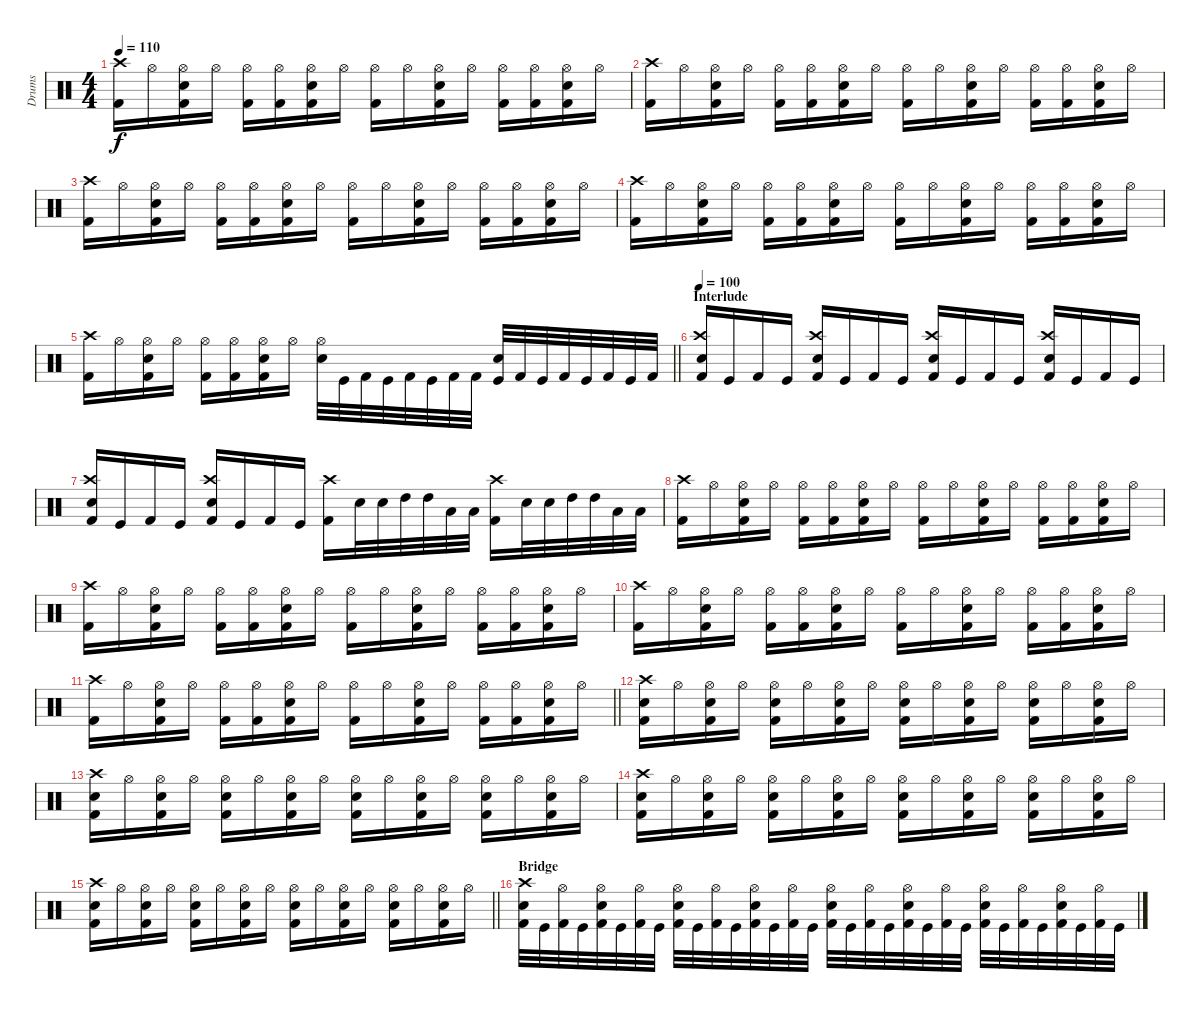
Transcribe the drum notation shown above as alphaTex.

\track ("Drums" "Drums") {instrument percussion}
\staff {score}
\articulation defaults
\ts (4 4)
\tempo 110
\clef neutral
\ks c
("Kick (hit) 2" "Crash high (hit)").16{dy f} "Hi-Hat (open)".16 ("Kick (hit) 2" "Snare (hit) 2" "Hi-Hat (open)").16 "Hi-Hat (open)".16 ("Kick (hit) 2" "Hi-Hat (open)").16 ("Kick (hit) 2" "Hi-Hat (open)").16 ("Kick (hit) 2" "Snare (hit) 2" "Hi-Hat (open)").16 "Hi-Hat (open)".16 ("Kick (hit) 2" "Hi-Hat (open)").16 "Hi-Hat (open)".16 ("Kick (hit) 2" "Snare (hit) 2" "Hi-Hat (open)").16 "Hi-Hat (open)".16 ("Kick (hit) 2" "Hi-Hat (open)").16 ("Kick (hit) 2" "Hi-Hat (open)").16 ("Kick (hit) 2" "Snare (hit) 2" "Hi-Hat (open)").16 "Hi-Hat (open)".16 |
("Kick (hit) 2" "Crash high (hit)").16 "Hi-Hat (open)".16 ("Kick (hit) 2" "Snare (hit) 2" "Hi-Hat (open)").16 "Hi-Hat (open)".16 ("Kick (hit) 2" "Hi-Hat (open)").16 ("Kick (hit) 2" "Hi-Hat (open)").16 ("Kick (hit) 2" "Snare (hit) 2" "Hi-Hat (open)").16 "Hi-Hat (open)".16 ("Kick (hit) 2" "Hi-Hat (open)").16 "Hi-Hat (open)".16 ("Kick (hit) 2" "Snare (hit) 2" "Hi-Hat (open)").16 "Hi-Hat (open)".16 ("Kick (hit) 2" "Hi-Hat (open)").16 ("Kick (hit) 2" "Hi-Hat (open)").16 ("Kick (hit) 2" "Snare (hit) 2" "Hi-Hat (open)").16 "Hi-Hat (open)".16 |
("Kick (hit) 2" "Crash high (hit)").16 "Hi-Hat (open)".16 ("Kick (hit) 2" "Snare (hit) 2" "Hi-Hat (open)").16 "Hi-Hat (open)".16 ("Kick (hit) 2" "Hi-Hat (open)").16 ("Kick (hit) 2" "Hi-Hat (open)").16 ("Kick (hit) 2" "Snare (hit) 2" "Hi-Hat (open)").16 "Hi-Hat (open)".16 ("Kick (hit) 2" "Hi-Hat (open)").16 "Hi-Hat (open)".16 ("Kick (hit) 2" "Snare (hit) 2" "Hi-Hat (open)").16 "Hi-Hat (open)".16 ("Kick (hit) 2" "Hi-Hat (open)").16 ("Kick (hit) 2" "Hi-Hat (open)").16 ("Kick (hit) 2" "Snare (hit) 2" "Hi-Hat (open)").16 "Hi-Hat (open)".16 |
("Kick (hit) 2" "Crash high (hit)").16 "Hi-Hat (open)".16 ("Kick (hit) 2" "Snare (hit) 2" "Hi-Hat (open)").16 "Hi-Hat (open)".16 ("Kick (hit) 2" "Hi-Hat (open)").16 ("Kick (hit) 2" "Hi-Hat (open)").16 ("Kick (hit) 2" "Snare (hit) 2" "Hi-Hat (open)").16 "Hi-Hat (open)".16 ("Kick (hit) 2" "Hi-Hat (open)").16 "Hi-Hat (open)".16 ("Kick (hit) 2" "Snare (hit) 2" "Hi-Hat (open)").16 "Hi-Hat (open)".16 ("Kick (hit) 2" "Hi-Hat (open)").16 ("Kick (hit) 2" "Hi-Hat (open)").16 ("Kick (hit) 2" "Snare (hit) 2" "Hi-Hat (open)").16 "Hi-Hat (open)".16 |
\barLineRight lightlight
("Kick (hit) 2" "Crash high (hit)").16 "Hi-Hat (open)".16 ("Kick (hit) 2" "Snare (hit) 2" "Hi-Hat (open)").16 "Hi-Hat (open)".16 ("Kick (hit) 2" "Hi-Hat (open)").16 ("Kick (hit) 2" "Hi-Hat (open)").16 ("Kick (hit) 2" "Snare (hit) 2" "Hi-Hat (open)").16 "Hi-Hat (open)".16 ("Snare (hit) 2" "Hi-Hat (open)").32 "Kick (hit)".32 "Kick (hit) 2".32 "Kick (hit)".32 "Kick (hit) 2".32 "Kick (hit)".32 "Kick (hit) 2".32 "Kick (hit) 2".32 ("Kick (hit)" "Snare (hit) 2").32 "Kick (hit) 2".32 "Kick (hit)".32 "Kick (hit) 2".32 "Kick (hit)".32 "Kick (hit) 2".32 "Kick (hit)".32 "Kick (hit) 2".32 |
\section ("" "Interlude")
\tempo 100
("Kick (hit) 2" "Snare (hit) 2" "Crash high (hit)").16 "Kick (hit)".16 "Kick (hit) 2".16 "Kick (hit)".16 ("Kick (hit) 2" "Snare (hit) 2" "Crash high (hit)").16 "Kick (hit)".16 "Kick (hit) 2".16 "Kick (hit)".16 ("Kick (hit) 2" "Snare (hit) 2" "Crash high (hit)").16 "Kick (hit)".16 "Kick (hit) 2".16 "Kick (hit)".16 ("Kick (hit) 2" "Snare (hit) 2" "Crash high (hit)").16 "Kick (hit)".16 "Kick (hit) 2".16 "Kick (hit)".16 |
("Kick (hit) 2" "Snare (hit) 2" "Crash high (hit)").16 "Kick (hit)".16 "Kick (hit) 2".16 "Kick (hit)".16 ("Kick (hit) 2" "Snare (hit) 2" "Crash high (hit)").16 "Kick (hit)".16 "Kick (hit) 2".16 "Kick (hit)".16 ("Kick (hit) 2" "Crash high (hit)").16 "Snare (hit) 2".32 "Snare (hit) 2".32 "High Tom (hit)".32 "High Tom (hit)".32 "Low Tom (hit)".32 "Low Tom (hit)".32 ("Kick (hit) 2" "Crash high (hit)").16 "Snare (hit) 2".32 "Snare (hit) 2".32 "High Tom (hit)".32 "High Tom (hit)".32 "Low Tom (hit)".32 "Low Tom (hit)".32 |
("Kick (hit) 2" "Crash high (hit)").16 "Hi-Hat (open)".16 ("Kick (hit) 2" "Snare (hit) 2" "Hi-Hat (open)").16 "Hi-Hat (open)".16 ("Kick (hit) 2" "Hi-Hat (open)").16 ("Kick (hit) 2" "Hi-Hat (open)").16 ("Kick (hit) 2" "Snare (hit) 2" "Hi-Hat (open)").16 "Hi-Hat (open)".16 ("Kick (hit) 2" "Hi-Hat (open)").16 "Hi-Hat (open)".16 ("Kick (hit) 2" "Snare (hit) 2" "Hi-Hat (open)").16 "Hi-Hat (open)".16 ("Kick (hit) 2" "Hi-Hat (open)").16 ("Kick (hit) 2" "Hi-Hat (open)").16 ("Kick (hit) 2" "Snare (hit) 2" "Hi-Hat (open)").16 "Hi-Hat (open)".16 |
("Kick (hit) 2" "Crash high (hit)").16 "Hi-Hat (open)".16 ("Kick (hit) 2" "Snare (hit) 2" "Hi-Hat (open)").16 "Hi-Hat (open)".16 ("Kick (hit) 2" "Hi-Hat (open)").16 ("Kick (hit) 2" "Hi-Hat (open)").16 ("Kick (hit) 2" "Snare (hit) 2" "Hi-Hat (open)").16 "Hi-Hat (open)".16 ("Kick (hit) 2" "Hi-Hat (open)").16 "Hi-Hat (open)".16 ("Kick (hit) 2" "Snare (hit) 2" "Hi-Hat (open)").16 "Hi-Hat (open)".16 ("Kick (hit) 2" "Hi-Hat (open)").16 ("Kick (hit) 2" "Hi-Hat (open)").16 ("Kick (hit) 2" "Snare (hit) 2" "Hi-Hat (open)").16 "Hi-Hat (open)".16 |
("Kick (hit) 2" "Crash high (hit)").16 "Hi-Hat (open)".16 ("Kick (hit) 2" "Snare (hit) 2" "Hi-Hat (open)").16 "Hi-Hat (open)".16 ("Kick (hit) 2" "Hi-Hat (open)").16 ("Kick (hit) 2" "Hi-Hat (open)").16 ("Kick (hit) 2" "Snare (hit) 2" "Hi-Hat (open)").16 "Hi-Hat (open)".16 ("Kick (hit) 2" "Hi-Hat (open)").16 "Hi-Hat (open)".16 ("Kick (hit) 2" "Snare (hit) 2" "Hi-Hat (open)").16 "Hi-Hat (open)".16 ("Kick (hit) 2" "Hi-Hat (open)").16 ("Kick (hit) 2" "Hi-Hat (open)").16 ("Kick (hit) 2" "Snare (hit) 2" "Hi-Hat (open)").16 "Hi-Hat (open)".16 |
\barLineRight lightlight
("Kick (hit) 2" "Crash high (hit)").16 "Hi-Hat (open)".16 ("Kick (hit) 2" "Snare (hit) 2" "Hi-Hat (open)").16 "Hi-Hat (open)".16 ("Kick (hit) 2" "Hi-Hat (open)").16 ("Kick (hit) 2" "Hi-Hat (open)").16 ("Kick (hit) 2" "Snare (hit) 2" "Hi-Hat (open)").16 "Hi-Hat (open)".16 ("Kick (hit) 2" "Hi-Hat (open)").16 "Hi-Hat (open)".16 ("Kick (hit) 2" "Snare (hit) 2" "Hi-Hat (open)").16 "Hi-Hat (open)".16 ("Kick (hit) 2" "Hi-Hat (open)").16 ("Kick (hit) 2" "Hi-Hat (open)").16 ("Kick (hit) 2" "Snare (hit) 2" "Hi-Hat (open)").16 "Hi-Hat (open)".16 |
("Kick (hit) 2" "Snare (hit) 2" "Crash high (hit)").16 "Hi-Hat (open)".16 ("Kick (hit) 2" "Snare (hit) 2" "Hi-Hat (open)").16 "Hi-Hat (open)".16 ("Kick (hit) 2" "Snare (hit) 2" "Hi-Hat (open)").16 "Hi-Hat (open)".16 ("Kick (hit) 2" "Snare (hit) 2" "Hi-Hat (open)").16 "Hi-Hat (open)".16 ("Kick (hit) 2" "Snare (hit) 2" "Hi-Hat (open)").16 "Hi-Hat (open)".16 ("Kick (hit) 2" "Snare (hit) 2" "Hi-Hat (open)").16 "Hi-Hat (open)".16 ("Kick (hit) 2" "Snare (hit) 2" "Hi-Hat (open)").16 "Hi-Hat (open)".16 ("Kick (hit) 2" "Snare (hit) 2" "Hi-Hat (open)").16 "Hi-Hat (open)".16 |
("Kick (hit) 2" "Snare (hit) 2" "Crash high (hit)").16 "Hi-Hat (open)".16 ("Kick (hit) 2" "Snare (hit) 2" "Hi-Hat (open)").16 "Hi-Hat (open)".16 ("Kick (hit) 2" "Snare (hit) 2" "Hi-Hat (open)").16 "Hi-Hat (open)".16 ("Kick (hit) 2" "Snare (hit) 2" "Hi-Hat (open)").16 "Hi-Hat (open)".16 ("Kick (hit) 2" "Snare (hit) 2" "Hi-Hat (open)").16 "Hi-Hat (open)".16 ("Kick (hit) 2" "Snare (hit) 2" "Hi-Hat (open)").16 "Hi-Hat (open)".16 ("Kick (hit) 2" "Snare (hit) 2" "Hi-Hat (open)").16 "Hi-Hat (open)".16 ("Kick (hit) 2" "Snare (hit) 2" "Hi-Hat (open)").16 "Hi-Hat (open)".16 |
("Kick (hit) 2" "Snare (hit) 2" "Crash high (hit)").16 "Hi-Hat (open)".16 ("Kick (hit) 2" "Snare (hit) 2" "Hi-Hat (open)").16 "Hi-Hat (open)".16 ("Kick (hit) 2" "Snare (hit) 2" "Hi-Hat (open)").16 "Hi-Hat (open)".16 ("Kick (hit) 2" "Snare (hit) 2" "Hi-Hat (open)").16 "Hi-Hat (open)".16 ("Kick (hit) 2" "Snare (hit) 2" "Hi-Hat (open)").16 "Hi-Hat (open)".16 ("Kick (hit) 2" "Snare (hit) 2" "Hi-Hat (open)").16 "Hi-Hat (open)".16 ("Kick (hit) 2" "Snare (hit) 2" "Hi-Hat (open)").16 "Hi-Hat (open)".16 ("Kick (hit) 2" "Snare (hit) 2" "Hi-Hat (open)").16 "Hi-Hat (open)".16 |
\barLineRight lightlight
("Kick (hit) 2" "Snare (hit) 2" "Crash high (hit)").16 "Hi-Hat (open)".16 ("Kick (hit) 2" "Snare (hit) 2" "Hi-Hat (open)").16 "Hi-Hat (open)".16 ("Kick (hit) 2" "Snare (hit) 2" "Hi-Hat (open)").16 "Hi-Hat (open)".16 ("Kick (hit) 2" "Snare (hit) 2" "Hi-Hat (open)").16 "Hi-Hat (open)".16 ("Kick (hit) 2" "Snare (hit) 2" "Hi-Hat (open)").16 "Hi-Hat (open)".16 ("Kick (hit) 2" "Snare (hit) 2" "Hi-Hat (open)").16 "Hi-Hat (open)".16 ("Kick (hit) 2" "Snare (hit) 2" "Hi-Hat (open)").16 "Hi-Hat (open)".16 ("Kick (hit) 2" "Snare (hit) 2" "Hi-Hat (open)").16 "Hi-Hat (open)".16 |
\section ("" "Bridge")
("Kick (hit) 2" "Snare (hit) 2" "Crash high (hit)").32 "Kick (hit)".32 ("Kick (hit) 2" "Hi-Hat (open)").32 "Kick (hit)".32 ("Kick (hit) 2" "Snare (hit) 2" "Hi-Hat (open)").32 "Kick (hit)".32 ("Kick (hit) 2" "Hi-Hat (open)").32 "Kick (hit)".32 ("Kick (hit) 2" "Snare (hit) 2" "Hi-Hat (open)").32 "Kick (hit)".32 ("Kick (hit) 2" "Hi-Hat (open)").32 "Kick (hit)".32 ("Kick (hit) 2" "Snare (hit) 2" "Hi-Hat (open)").32 "Kick (hit)".32 ("Kick (hit) 2" "Hi-Hat (open)").32 "Kick (hit)".32 ("Kick (hit) 2" "Snare (hit) 2" "Hi-Hat (open)").32 "Kick (hit)".32 ("Kick (hit) 2" "Hi-Hat (open)").32 "Kick (hit)".32 ("Kick (hit) 2" "Snare (hit) 2" "Hi-Hat (open)").32 "Kick (hit)".32 ("Kick (hit) 2" "Hi-Hat (open)").32 "Kick (hit)".32 ("Kick (hit) 2" "Snare (hit) 2" "Hi-Hat (open)").32 "Kick (hit)".32 ("Kick (hit) 2" "Hi-Hat (open)").32 "Kick (hit)".32 ("Kick (hit) 2" "Snare (hit) 2" "Hi-Hat (open)").32 "Kick (hit)".32 ("Kick (hit) 2" "Hi-Hat (open)").32 "Kick (hit)".32
